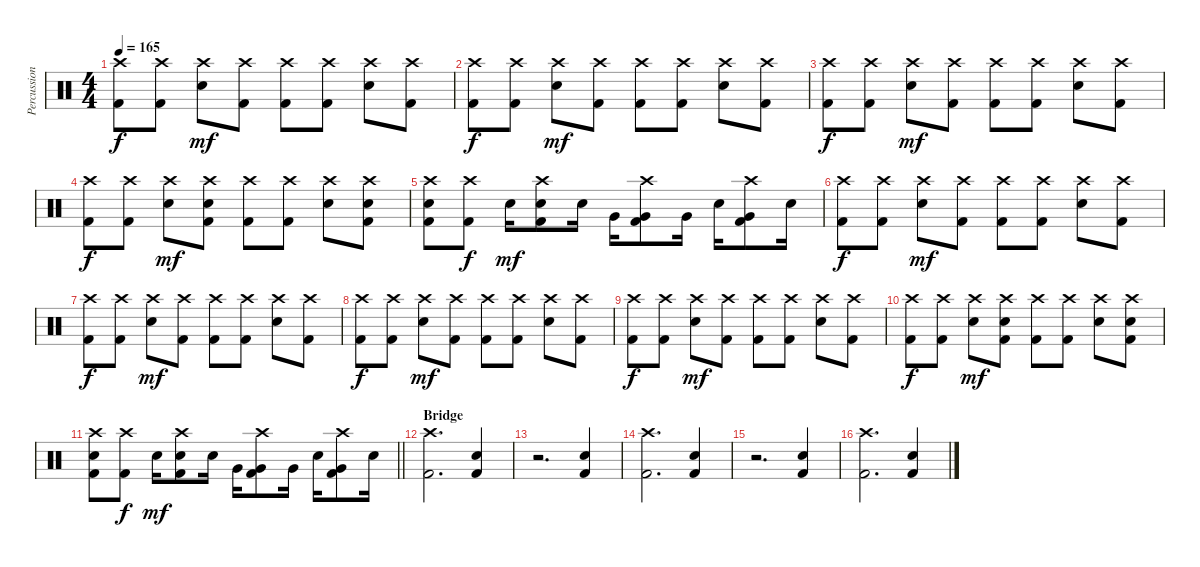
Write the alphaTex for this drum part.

\track ("Percussion" "Percussion") {instrument percussion}
\staff {score}
\articulation defaults
\ts (4 4)
\tempo 165
\clef neutral
\ks c
("Crash high (hit)" "Kick (hit) 2").8{dy f} ("Crash high (hit)" "Kick (hit) 2").8 ("Crash high (hit)" "Snare (hit) 2").8{dy mf} ("Crash high (hit)" "Kick (hit) 2").8 ("Crash high (hit)" "Kick (hit) 2").8 ("Crash high (hit)" "Kick (hit) 2").8 ("Crash high (hit)" "Snare (hit) 2").8 ("Crash high (hit)" "Kick (hit) 2").8 |
("Crash high (hit)" "Kick (hit) 2").8{dy f} ("Crash high (hit)" "Kick (hit) 2").8 ("Crash high (hit)" "Snare (hit) 2").8{dy mf} ("Crash high (hit)" "Kick (hit) 2").8 ("Crash high (hit)" "Kick (hit) 2").8 ("Crash high (hit)" "Kick (hit) 2").8 ("Crash high (hit)" "Snare (hit) 2").8 ("Crash high (hit)" "Kick (hit) 2").8 |
("Crash high (hit)" "Kick (hit) 2").8{dy f} ("Crash high (hit)" "Kick (hit) 2").8 ("Crash high (hit)" "Snare (hit) 2").8{dy mf} ("Crash high (hit)" "Kick (hit) 2").8 ("Crash high (hit)" "Kick (hit) 2").8 ("Crash high (hit)" "Kick (hit) 2").8 ("Crash high (hit)" "Snare (hit) 2").8 ("Crash high (hit)" "Kick (hit) 2").8 |
("Crash high (hit)" "Kick (hit) 2").8{dy f} ("Crash high (hit)" "Kick (hit) 2").8 ("Crash high (hit)" "Snare (hit) 2").8{dy mf} ("Crash high (hit)" "Snare (hit) 2" "Kick (hit) 2").8 ("Crash high (hit)" "Kick (hit) 2").8 ("Crash high (hit)" "Kick (hit) 2").8 ("Crash high (hit)" "Snare (hit) 2").8 ("Crash high (hit)" "Snare (hit) 2" "Kick (hit) 2").8 |
("Crash high (hit)" "Snare (hit) 2" "Kick (hit) 2").8 ("Crash high (hit)" "Kick (hit) 2").8{dy f} "Snare (hit) 2".16{dy mf} ("Crash high (hit)" "Snare (hit) 2" "Kick (hit) 2").8 "Snare (hit) 2".16 "Very Low Tom (hit)".16 ("Crash high (hit)" "Very Low Tom (hit)" "Kick (hit) 2").8 "Very Low Tom (hit)".16 "Snare (hit) 2".16 ("Crash high (hit)" "Very Low Tom (hit)" "Kick (hit) 2").8 "Snare (hit) 2".16 |
("Crash high (hit)" "Kick (hit) 2").8{dy f} ("Crash high (hit)" "Kick (hit) 2").8 ("Crash high (hit)" "Snare (hit) 2").8{dy mf} ("Crash high (hit)" "Kick (hit) 2").8 ("Crash high (hit)" "Kick (hit) 2").8 ("Crash high (hit)" "Kick (hit) 2").8 ("Crash high (hit)" "Snare (hit) 2").8 ("Crash high (hit)" "Kick (hit) 2").8 |
("Crash high (hit)" "Kick (hit) 2").8{dy f} ("Crash high (hit)" "Kick (hit) 2").8 ("Crash high (hit)" "Snare (hit) 2").8{dy mf} ("Crash high (hit)" "Kick (hit) 2").8 ("Crash high (hit)" "Kick (hit) 2").8 ("Crash high (hit)" "Kick (hit) 2").8 ("Crash high (hit)" "Snare (hit) 2").8 ("Crash high (hit)" "Kick (hit) 2").8 |
("Crash high (hit)" "Kick (hit) 2").8{dy f} ("Crash high (hit)" "Kick (hit) 2").8 ("Crash high (hit)" "Snare (hit) 2").8{dy mf} ("Crash high (hit)" "Kick (hit) 2").8 ("Crash high (hit)" "Kick (hit) 2").8 ("Crash high (hit)" "Kick (hit) 2").8 ("Crash high (hit)" "Snare (hit) 2").8 ("Crash high (hit)" "Kick (hit) 2").8 |
("Crash high (hit)" "Kick (hit) 2").8{dy f} ("Crash high (hit)" "Kick (hit) 2").8 ("Crash high (hit)" "Snare (hit) 2").8{dy mf} ("Crash high (hit)" "Kick (hit) 2").8 ("Crash high (hit)" "Kick (hit) 2").8 ("Crash high (hit)" "Kick (hit) 2").8 ("Crash high (hit)" "Snare (hit) 2").8 ("Crash high (hit)" "Kick (hit) 2").8 |
("Crash high (hit)" "Kick (hit) 2").8{dy f} ("Crash high (hit)" "Kick (hit) 2").8 ("Crash high (hit)" "Snare (hit) 2").8{dy mf} ("Crash high (hit)" "Snare (hit) 2" "Kick (hit) 2").8 ("Crash high (hit)" "Kick (hit) 2").8 ("Crash high (hit)" "Kick (hit) 2").8 ("Crash high (hit)" "Snare (hit) 2").8 ("Crash high (hit)" "Snare (hit) 2" "Kick (hit) 2").8 |
\barLineRight lightlight
("Crash high (hit)" "Snare (hit) 2" "Kick (hit) 2").8 ("Crash high (hit)" "Kick (hit) 2").8{dy f} "Snare (hit) 2".16{dy mf} ("Crash high (hit)" "Snare (hit) 2" "Kick (hit) 2").8 "Snare (hit) 2".16 "Very Low Tom (hit)".16 ("Crash high (hit)" "Very Low Tom (hit)" "Kick (hit) 2").8 "Very Low Tom (hit)".16 "Snare (hit) 2".16 ("Crash high (hit)" "Very Low Tom (hit)" "Kick (hit) 2").8 "Snare (hit) 2".16 |
\section ("" "Bridge")
("Crash high (hit)" "Kick (hit) 2").2{d} ("Snare (hit) 2" "Kick (hit) 2").4 |
r.2{d} ("Snare (hit) 2" "Kick (hit) 2").4 |
("Crash high (hit)" "Kick (hit) 2").2{d} ("Snare (hit) 2" "Kick (hit) 2").4 |
r.2{d} ("Snare (hit) 2" "Kick (hit) 2").4 |
("Crash high (hit)" "Kick (hit) 2").2{d} ("Snare (hit) 2" "Kick (hit) 2").4
